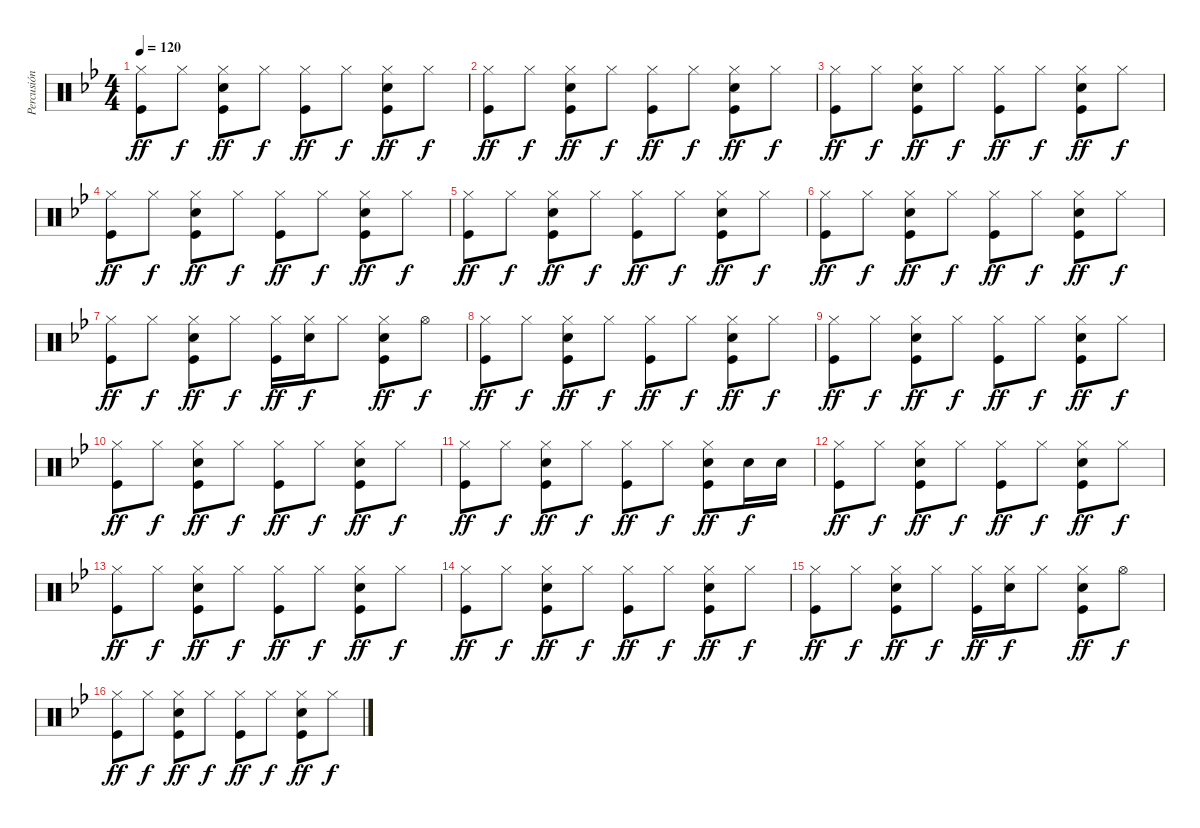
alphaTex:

\track ("Percusión" "Percusión") {instrument percussion}
\staff {score}
\articulation defaults
\ts (4 4)
\tempo 120
\clef neutral
\ks bb
("Hi-Hat (closed)" "Kick (hit)").8{dy ff} "Hi-Hat (closed)".8{dy f} ("Hi-Hat (closed)" "Snare (hit) 2" "Kick (hit)").8{dy ff} "Hi-Hat (closed)".8{dy f} ("Hi-Hat (closed)" "Kick (hit)").8{dy ff} "Hi-Hat (closed)".8{dy f} ("Hi-Hat (closed)" "Snare (hit) 2" "Kick (hit)").8{dy ff} "Hi-Hat (closed)".8{dy f} |
("Hi-Hat (closed)" "Kick (hit)").8{dy ff} "Hi-Hat (closed)".8{dy f} ("Hi-Hat (closed)" "Snare (hit) 2" "Kick (hit)").8{dy ff} "Hi-Hat (closed)".8{dy f} ("Hi-Hat (closed)" "Kick (hit)").8{dy ff} "Hi-Hat (closed)".8{dy f} ("Hi-Hat (closed)" "Snare (hit) 2" "Kick (hit)").8{dy ff} "Hi-Hat (closed)".8{dy f} |
("Hi-Hat (closed)" "Kick (hit)").8{dy ff} "Hi-Hat (closed)".8{dy f} ("Hi-Hat (closed)" "Snare (hit) 2" "Kick (hit)").8{dy ff} "Hi-Hat (closed)".8{dy f} ("Hi-Hat (closed)" "Kick (hit)").8{dy ff} "Hi-Hat (closed)".8{dy f} ("Hi-Hat (closed)" "Snare (hit) 2" "Kick (hit)").8{dy ff} "Hi-Hat (closed)".8{dy f} |
("Hi-Hat (closed)" "Kick (hit)").8{dy ff} "Hi-Hat (closed)".8{dy f} ("Hi-Hat (closed)" "Snare (hit) 2" "Kick (hit)").8{dy ff} "Hi-Hat (closed)".8{dy f} ("Hi-Hat (closed)" "Kick (hit)").8{dy ff} "Hi-Hat (closed)".8{dy f} ("Hi-Hat (closed)" "Snare (hit) 2" "Kick (hit)").8{dy ff} "Hi-Hat (closed)".8{dy f} |
("Hi-Hat (closed)" "Kick (hit)").8{dy ff} "Hi-Hat (closed)".8{dy f} ("Hi-Hat (closed)" "Snare (hit) 2" "Kick (hit)").8{dy ff} "Hi-Hat (closed)".8{dy f} ("Hi-Hat (closed)" "Kick (hit)").8{dy ff} "Hi-Hat (closed)".8{dy f} ("Hi-Hat (closed)" "Snare (hit) 2" "Kick (hit)").8{dy ff} "Hi-Hat (closed)".8{dy f} |
("Hi-Hat (closed)" "Kick (hit)").8{dy ff} "Hi-Hat (closed)".8{dy f} ("Hi-Hat (closed)" "Snare (hit) 2" "Kick (hit)").8{dy ff} "Hi-Hat (closed)".8{dy f} ("Hi-Hat (closed)" "Kick (hit)").8{dy ff} "Hi-Hat (closed)".8{dy f} ("Hi-Hat (closed)" "Snare (hit) 2" "Kick (hit)").8{dy ff} "Hi-Hat (closed)".8{dy f} |
("Hi-Hat (closed)" "Kick (hit)").8{dy ff} "Hi-Hat (closed)".8{dy f} ("Hi-Hat (closed)" "Snare (hit) 2" "Kick (hit)").8{dy ff} "Hi-Hat (closed)".8{dy f} ("Hi-Hat (closed)" "Kick (hit)").16{dy ff} ("Hi-Hat (closed)" "Snare (hit) 2").16{dy f} "Hi-Hat (closed)".8 ("Hi-Hat (closed)" "Snare (hit) 2" "Kick (hit)").8{dy ff} "Hi-Hat (open)".8{dy f} |
("Hi-Hat (closed)" "Kick (hit)").8{dy ff} "Hi-Hat (closed)".8{dy f} ("Hi-Hat (closed)" "Snare (hit) 2" "Kick (hit)").8{dy ff} "Hi-Hat (closed)".8{dy f} ("Hi-Hat (closed)" "Kick (hit)").8{dy ff} "Hi-Hat (closed)".8{dy f} ("Hi-Hat (closed)" "Snare (hit) 2" "Kick (hit)").8{dy ff} "Hi-Hat (closed)".8{dy f} |
("Hi-Hat (closed)" "Kick (hit)").8{dy ff} "Hi-Hat (closed)".8{dy f} ("Hi-Hat (closed)" "Snare (hit) 2" "Kick (hit)").8{dy ff} "Hi-Hat (closed)".8{dy f} ("Hi-Hat (closed)" "Kick (hit)").8{dy ff} "Hi-Hat (closed)".8{dy f} ("Hi-Hat (closed)" "Snare (hit) 2" "Kick (hit)").8{dy ff} "Hi-Hat (closed)".8{dy f} |
("Hi-Hat (closed)" "Kick (hit)").8{dy ff} "Hi-Hat (closed)".8{dy f} ("Hi-Hat (closed)" "Snare (hit) 2" "Kick (hit)").8{dy ff} "Hi-Hat (closed)".8{dy f} ("Hi-Hat (closed)" "Kick (hit)").8{dy ff} "Hi-Hat (closed)".8{dy f} ("Hi-Hat (closed)" "Snare (hit) 2" "Kick (hit)").8{dy ff} "Hi-Hat (closed)".8{dy f} |
("Hi-Hat (closed)" "Kick (hit)").8{dy ff} "Hi-Hat (closed)".8{dy f} ("Hi-Hat (closed)" "Snare (hit) 2" "Kick (hit)").8{dy ff} "Hi-Hat (closed)".8{dy f} ("Hi-Hat (closed)" "Kick (hit)").8{dy ff} "Hi-Hat (closed)".8{dy f} ("Hi-Hat (closed)" "Snare (hit) 2" "Kick (hit)").8{dy ff} "Snare (hit) 2".16{dy f} "Snare (hit) 2".16 |
("Hi-Hat (closed)" "Kick (hit)").8{dy ff} "Hi-Hat (closed)".8{dy f} ("Hi-Hat (closed)" "Snare (hit) 2" "Kick (hit)").8{dy ff} "Hi-Hat (closed)".8{dy f} ("Hi-Hat (closed)" "Kick (hit)").8{dy ff} "Hi-Hat (closed)".8{dy f} ("Hi-Hat (closed)" "Snare (hit) 2" "Kick (hit)").8{dy ff} "Hi-Hat (closed)".8{dy f} |
("Hi-Hat (closed)" "Kick (hit)").8{dy ff} "Hi-Hat (closed)".8{dy f} ("Hi-Hat (closed)" "Snare (hit) 2" "Kick (hit)").8{dy ff} "Hi-Hat (closed)".8{dy f} ("Hi-Hat (closed)" "Kick (hit)").8{dy ff} "Hi-Hat (closed)".8{dy f} ("Hi-Hat (closed)" "Snare (hit) 2" "Kick (hit)").8{dy ff} "Hi-Hat (closed)".8{dy f} |
("Hi-Hat (closed)" "Kick (hit)").8{dy ff} "Hi-Hat (closed)".8{dy f} ("Hi-Hat (closed)" "Snare (hit) 2" "Kick (hit)").8{dy ff} "Hi-Hat (closed)".8{dy f} ("Hi-Hat (closed)" "Kick (hit)").8{dy ff} "Hi-Hat (closed)".8{dy f} ("Hi-Hat (closed)" "Snare (hit) 2" "Kick (hit)").8{dy ff} "Hi-Hat (closed)".8{dy f} |
("Hi-Hat (closed)" "Kick (hit)").8{dy ff} "Hi-Hat (closed)".8{dy f} ("Hi-Hat (closed)" "Snare (hit) 2" "Kick (hit)").8{dy ff} "Hi-Hat (closed)".8{dy f} ("Hi-Hat (closed)" "Kick (hit)").16{dy ff} ("Hi-Hat (closed)" "Snare (hit) 2").16{dy f} "Hi-Hat (closed)".8 ("Hi-Hat (closed)" "Snare (hit) 2" "Kick (hit)").8{dy ff} "Hi-Hat (open)".8{dy f} |
("Hi-Hat (closed)" "Kick (hit)").8{dy ff} "Hi-Hat (closed)".8{dy f} ("Hi-Hat (closed)" "Snare (hit) 2" "Kick (hit)").8{dy ff} "Hi-Hat (closed)".8{dy f} ("Hi-Hat (closed)" "Kick (hit)").8{dy ff} "Hi-Hat (closed)".8{dy f} ("Hi-Hat (closed)" "Snare (hit) 2" "Kick (hit)").8{dy ff} "Hi-Hat (closed)".8{dy f}
